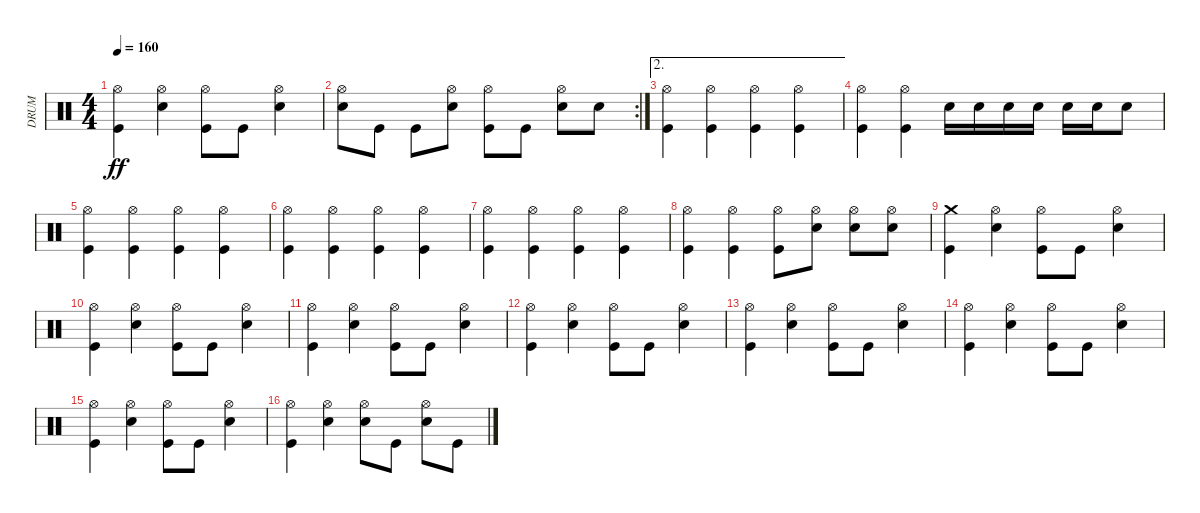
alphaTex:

\track ("DRUM" "DRUM") {instrument percussion}
\staff {score}
\articulation defaults
\ts (4 4)
\tempo 160
\clef neutral
\ks c
("Hi-Hat (open)" "Kick (hit)").4{dy ff} ("Hi-Hat (open)" "Snare (hit) 2").4 ("Hi-Hat (open)" "Kick (hit)").8 "Kick (hit)".8 ("Hi-Hat (open)" "Snare (hit) 2").4 |
\rc 2
("Hi-Hat (open)" "Snare (hit) 2").8 "Kick (hit)".8 "Kick (hit)".8 ("Hi-Hat (open)" "Snare (hit) 2").8 ("Hi-Hat (open)" "Kick (hit)").8 "Kick (hit)".8 ("Hi-Hat (open)" "Snare (hit) 2").8 "Snare (hit) 2".8 |
\ae 2
("Hi-Hat (open)" "Kick (hit)").4 ("Hi-Hat (open)" "Kick (hit)").4 ("Hi-Hat (open)" "Kick (hit)").4 ("Hi-Hat (open)" "Kick (hit)").4 |
("Hi-Hat (open)" "Kick (hit)").4 ("Hi-Hat (open)" "Kick (hit)").4 "Snare (hit) 2".16 "Snare (hit) 2".16 "Snare (hit) 2".16 "Snare (hit) 2".16 "Snare (hit) 2".16 "Snare (hit) 2".16 "Snare (hit) 2".8 |
("Hi-Hat (open)" "Kick (hit)").4 ("Hi-Hat (open)" "Kick (hit)").4 ("Hi-Hat (open)" "Kick (hit)").4 ("Hi-Hat (open)" "Kick (hit)").4 |
("Hi-Hat (open)" "Kick (hit)").4 ("Hi-Hat (open)" "Kick (hit)").4 ("Hi-Hat (open)" "Kick (hit)").4 ("Hi-Hat (open)" "Kick (hit)").4 |
("Hi-Hat (open)" "Kick (hit)").4 ("Hi-Hat (open)" "Kick (hit)").4 ("Hi-Hat (open)" "Kick (hit)").4 ("Hi-Hat (open)" "Kick (hit)").4 |
("Hi-Hat (open)" "Kick (hit)").4 ("Hi-Hat (open)" "Kick (hit)").4 ("Hi-Hat (open)" "Kick (hit)").8 ("Hi-Hat (open)" "Snare (hit) 2").8 ("Hi-Hat (open)" "Snare (hit) 2").8 ("Hi-Hat (open)" "Snare (hit) 2").8 |
("Crash medium (hit)" "Kick (hit)").4 ("Hi-Hat (open)" "Snare (hit) 2").4 ("Hi-Hat (open)" "Kick (hit)").8 "Kick (hit)".8 ("Hi-Hat (open)" "Snare (hit) 2").4 |
("Hi-Hat (open)" "Kick (hit)").4 ("Hi-Hat (open)" "Snare (hit) 2").4 ("Hi-Hat (open)" "Kick (hit)").8 "Kick (hit)".8 ("Hi-Hat (open)" "Snare (hit) 2").4 |
("Hi-Hat (open)" "Kick (hit)").4 ("Hi-Hat (open)" "Snare (hit) 2").4 ("Hi-Hat (open)" "Kick (hit)").8 "Kick (hit)".8 ("Hi-Hat (open)" "Snare (hit) 2").4 |
("Hi-Hat (open)" "Kick (hit)").4 ("Hi-Hat (open)" "Snare (hit) 2").4 ("Hi-Hat (open)" "Kick (hit)").8 "Kick (hit)".8 ("Hi-Hat (open)" "Snare (hit) 2").4 |
("Hi-Hat (open)" "Kick (hit)").4 ("Hi-Hat (open)" "Snare (hit) 2").4 ("Hi-Hat (open)" "Kick (hit)").8 "Kick (hit)".8 ("Hi-Hat (open)" "Snare (hit) 2").4 |
("Hi-Hat (open)" "Kick (hit)").4 ("Hi-Hat (open)" "Snare (hit) 2").4 ("Hi-Hat (open)" "Kick (hit)").8 "Kick (hit)".8 ("Hi-Hat (open)" "Snare (hit) 2").4 |
("Hi-Hat (open)" "Kick (hit)").4 ("Hi-Hat (open)" "Snare (hit) 2").4 ("Hi-Hat (open)" "Kick (hit)").8 "Kick (hit)".8 ("Hi-Hat (open)" "Snare (hit) 2").4 |
("Hi-Hat (open)" "Kick (hit)").4 ("Hi-Hat (open)" "Snare (hit) 2").4 ("Hi-Hat (open)" "Snare (hit) 2").8 "Kick (hit)".8 ("Hi-Hat (open)" "Snare (hit) 2").8 "Kick (hit)".8
